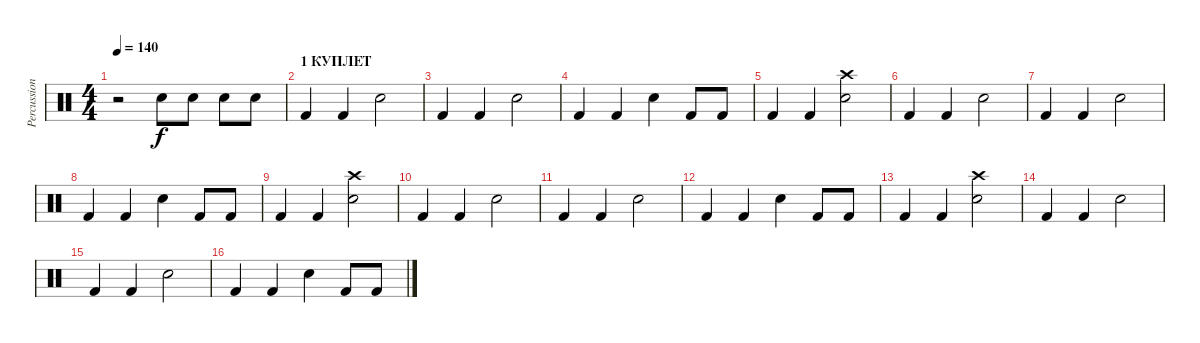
\track ("Percussion" "Percussion") {instrument percussion}
\staff {score}
\articulation defaults
\ts (4 4)
\tempo 140
\clef neutral
\ks c
r.2{dy f} "Snare (hit) 2".8 "Snare (hit) 2".8 "Snare (hit) 2".8 "Snare (hit) 2".8 |
\section ("" "1 КУПЛЕТ")
"Kick (hit) 2".4 "Kick (hit) 2".4 "Snare (hit) 2".2 |
"Kick (hit) 2".4 "Kick (hit) 2".4 "Snare (hit) 2".2 |
"Kick (hit) 2".4 "Kick (hit) 2".4 "Snare (hit) 2".4 "Kick (hit) 2".8 "Kick (hit) 2".8 |
"Kick (hit) 2".4 "Kick (hit) 2".4 ("Crash high (hit)" "Snare (hit) 2").2 |
"Kick (hit) 2".4 "Kick (hit) 2".4 "Snare (hit) 2".2 |
"Kick (hit) 2".4 "Kick (hit) 2".4 "Snare (hit) 2".2 |
"Kick (hit) 2".4 "Kick (hit) 2".4 "Snare (hit) 2".4 "Kick (hit) 2".8 "Kick (hit) 2".8 |
"Kick (hit) 2".4 "Kick (hit) 2".4 ("Crash high (hit)" "Snare (hit) 2").2 |
"Kick (hit) 2".4 "Kick (hit) 2".4 "Snare (hit) 2".2 |
"Kick (hit) 2".4 "Kick (hit) 2".4 "Snare (hit) 2".2 |
"Kick (hit) 2".4 "Kick (hit) 2".4 "Snare (hit) 2".4 "Kick (hit) 2".8 "Kick (hit) 2".8 |
"Kick (hit) 2".4 "Kick (hit) 2".4 ("Crash high (hit)" "Snare (hit) 2").2 |
"Kick (hit) 2".4 "Kick (hit) 2".4 "Snare (hit) 2".2 |
"Kick (hit) 2".4 "Kick (hit) 2".4 "Snare (hit) 2".2 |
"Kick (hit) 2".4 "Kick (hit) 2".4 "Snare (hit) 2".4 "Kick (hit) 2".8 "Kick (hit) 2".8
